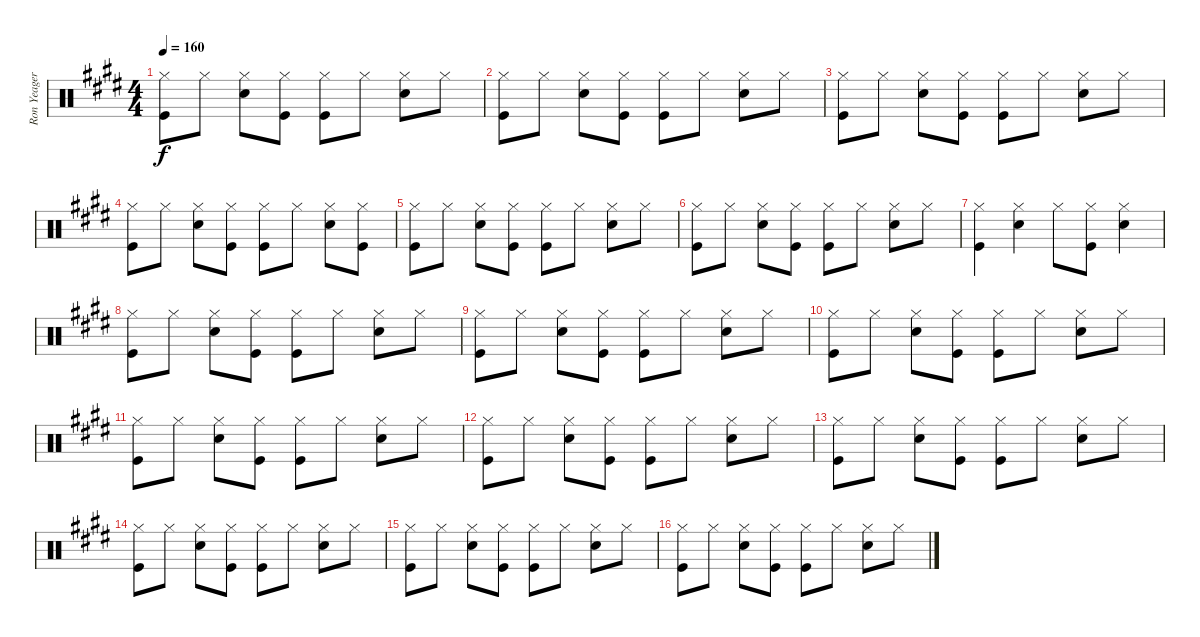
\track ("Ron Yeager Drums" "Ron Yeager") {instrument percussion}
\staff {score}
\articulation defaults
\ts (4 4)
\tempo 160
\clef neutral
\ks e
("Hi-Hat (closed)" "Kick (hit)").8{dy f} "Hi-Hat (closed)".8 ("Hi-Hat (closed)" "Snare (hit) 2").8 ("Hi-Hat (closed)" "Kick (hit)").8 ("Hi-Hat (closed)" "Kick (hit)").8 "Hi-Hat (closed)".8 ("Hi-Hat (closed)" "Snare (hit) 2").8 "Hi-Hat (closed)".8 |
("Hi-Hat (closed)" "Kick (hit)").8 "Hi-Hat (closed)".8 ("Hi-Hat (closed)" "Snare (hit) 2").8 ("Hi-Hat (closed)" "Kick (hit)").8 ("Hi-Hat (closed)" "Kick (hit)").8 "Hi-Hat (closed)".8 ("Hi-Hat (closed)" "Snare (hit) 2").8 "Hi-Hat (closed)".8 |
("Hi-Hat (closed)" "Kick (hit)").8 "Hi-Hat (closed)".8 ("Hi-Hat (closed)" "Snare (hit) 2").8 ("Hi-Hat (closed)" "Kick (hit)").8 ("Hi-Hat (closed)" "Kick (hit)").8 "Hi-Hat (closed)".8 ("Hi-Hat (closed)" "Snare (hit) 2").8 "Hi-Hat (closed)".8 |
("Hi-Hat (closed)" "Kick (hit)").8 "Hi-Hat (closed)".8 ("Hi-Hat (closed)" "Snare (hit) 2").8 ("Hi-Hat (closed)" "Kick (hit)").8 ("Hi-Hat (closed)" "Kick (hit)").8 "Hi-Hat (closed)".8 ("Hi-Hat (closed)" "Snare (hit) 2").8 ("Hi-Hat (closed)" "Kick (hit)").8 |
("Hi-Hat (closed)" "Kick (hit)").8 "Hi-Hat (closed)".8 ("Hi-Hat (closed)" "Snare (hit) 2").8 ("Hi-Hat (closed)" "Kick (hit)").8 ("Hi-Hat (closed)" "Kick (hit)").8 "Hi-Hat (closed)".8 ("Hi-Hat (closed)" "Snare (hit) 2").8 "Hi-Hat (closed)".8 |
("Hi-Hat (closed)" "Kick (hit)").8 "Hi-Hat (closed)".8 ("Hi-Hat (closed)" "Snare (hit) 2").8 ("Hi-Hat (closed)" "Kick (hit)").8 ("Hi-Hat (closed)" "Kick (hit)").8 "Hi-Hat (closed)".8 ("Hi-Hat (closed)" "Snare (hit) 2").8 "Hi-Hat (closed)".8 |
("Hi-Hat (closed)" "Kick (hit)").4 ("Hi-Hat (closed)" "Snare (hit) 2").4 "Hi-Hat (closed)".8 ("Hi-Hat (closed)" "Kick (hit)").8 ("Hi-Hat (closed)" "Snare (hit) 2").4 |
("Hi-Hat (closed)" "Kick (hit)").8 "Hi-Hat (closed)".8 ("Hi-Hat (closed)" "Snare (hit) 2").8 ("Hi-Hat (closed)" "Kick (hit)").8 ("Hi-Hat (closed)" "Kick (hit)").8 "Hi-Hat (closed)".8 ("Hi-Hat (closed)" "Snare (hit) 2").8 "Hi-Hat (closed)".8 |
("Hi-Hat (closed)" "Kick (hit)").8 "Hi-Hat (closed)".8 ("Hi-Hat (closed)" "Snare (hit) 2").8 ("Hi-Hat (closed)" "Kick (hit)").8 ("Hi-Hat (closed)" "Kick (hit)").8 "Hi-Hat (closed)".8 ("Hi-Hat (closed)" "Snare (hit) 2").8 "Hi-Hat (closed)".8 |
("Hi-Hat (closed)" "Kick (hit)").8 "Hi-Hat (closed)".8 ("Hi-Hat (closed)" "Snare (hit) 2").8 ("Hi-Hat (closed)" "Kick (hit)").8 ("Hi-Hat (closed)" "Kick (hit)").8 "Hi-Hat (closed)".8 ("Hi-Hat (closed)" "Snare (hit) 2").8 "Hi-Hat (closed)".8 |
("Hi-Hat (closed)" "Kick (hit)").8 "Hi-Hat (closed)".8 ("Hi-Hat (closed)" "Snare (hit) 2").8 ("Hi-Hat (closed)" "Kick (hit)").8 ("Hi-Hat (closed)" "Kick (hit)").8 "Hi-Hat (closed)".8 ("Hi-Hat (closed)" "Snare (hit) 2").8 "Hi-Hat (closed)".8 |
("Hi-Hat (closed)" "Kick (hit)").8 "Hi-Hat (closed)".8 ("Hi-Hat (closed)" "Snare (hit) 2").8 ("Hi-Hat (closed)" "Kick (hit)").8 ("Hi-Hat (closed)" "Kick (hit)").8 "Hi-Hat (closed)".8 ("Hi-Hat (closed)" "Snare (hit) 2").8 "Hi-Hat (closed)".8 |
("Hi-Hat (closed)" "Kick (hit)").8 "Hi-Hat (closed)".8 ("Hi-Hat (closed)" "Snare (hit) 2").8 ("Hi-Hat (closed)" "Kick (hit)").8 ("Hi-Hat (closed)" "Kick (hit)").8 "Hi-Hat (closed)".8 ("Hi-Hat (closed)" "Snare (hit) 2").8 "Hi-Hat (closed)".8 |
("Hi-Hat (closed)" "Kick (hit)").8 "Hi-Hat (closed)".8 ("Hi-Hat (closed)" "Snare (hit) 2").8 ("Hi-Hat (closed)" "Kick (hit)").8 ("Hi-Hat (closed)" "Kick (hit)").8 "Hi-Hat (closed)".8 ("Hi-Hat (closed)" "Snare (hit) 2").8 "Hi-Hat (closed)".8 |
("Hi-Hat (closed)" "Kick (hit)").8 "Hi-Hat (closed)".8 ("Hi-Hat (closed)" "Snare (hit) 2").8 ("Hi-Hat (closed)" "Kick (hit)").8 ("Hi-Hat (closed)" "Kick (hit)").8 "Hi-Hat (closed)".8 ("Hi-Hat (closed)" "Snare (hit) 2").8 "Hi-Hat (closed)".8 |
("Hi-Hat (closed)" "Kick (hit)").8 "Hi-Hat (closed)".8 ("Hi-Hat (closed)" "Snare (hit) 2").8 ("Hi-Hat (closed)" "Kick (hit)").8 ("Hi-Hat (closed)" "Kick (hit)").8 "Hi-Hat (closed)".8 ("Hi-Hat (closed)" "Snare (hit) 2").8 "Hi-Hat (closed)".8
